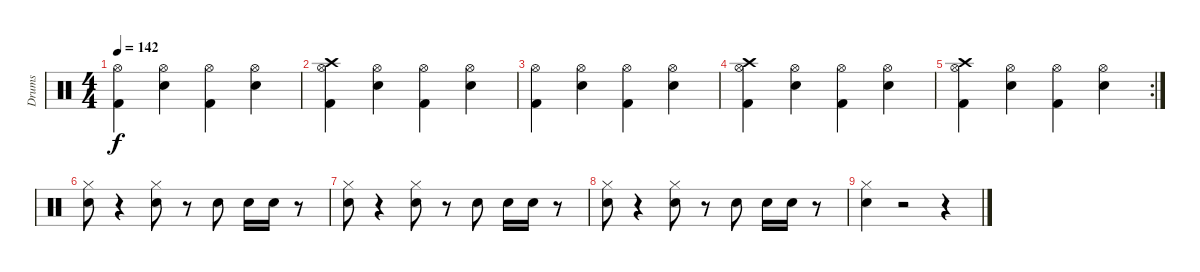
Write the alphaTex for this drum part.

\track ("Drums" "Drums") {instrument percussion}
\staff {score}
\articulation defaults
\ts (4 4)
\tempo 142
\clef neutral
\ks c
("Kick (hit) 2" "Hi-Hat (open)").4{dy f} ("Snare (hit) 2" "Hi-Hat (open)").4 ("Kick (hit) 2" "Hi-Hat (open)").4 ("Snare (hit) 2" "Hi-Hat (open)").4 |
("Kick (hit) 2" "Hi-Hat (open)" "Crash high (hit)").4 ("Snare (hit) 2" "Hi-Hat (open)").4 ("Kick (hit) 2" "Hi-Hat (open)").4 ("Snare (hit) 2" "Hi-Hat (open)").4 |
("Kick (hit) 2" "Hi-Hat (open)").4 ("Snare (hit) 2" "Hi-Hat (open)").4 ("Kick (hit) 2" "Hi-Hat (open)").4 ("Snare (hit) 2" "Hi-Hat (open)").4 |
("Kick (hit) 2" "Hi-Hat (open)" "Crash high (hit)").4 ("Snare (hit) 2" "Hi-Hat (open)").4 ("Kick (hit) 2" "Hi-Hat (open)").4 ("Snare (hit) 2" "Hi-Hat (open)").4 |
\rc 2
("Kick (hit) 2" "Hi-Hat (open)" "Crash high (hit)").4 ("Snare (hit) 2" "Hi-Hat (open)").4 ("Kick (hit) 2" "Hi-Hat (open)").4 ("Snare (hit) 2" "Hi-Hat (open)").4 |
("Snare (hit) 2" "Hi-Hat (closed)").8 r.4 ("Snare (hit) 2" "Hi-Hat (closed)").8 r.8 "Snare (hit) 2".8 "Snare (hit) 2".16 "Snare (hit) 2".16 r.8 |
("Snare (hit) 2" "Hi-Hat (closed)").8 r.4 ("Snare (hit) 2" "Hi-Hat (closed)").8 r.8 "Snare (hit) 2".8 "Snare (hit) 2".16 "Snare (hit) 2".16 r.8 |
("Snare (hit) 2" "Hi-Hat (closed)").8 r.4 ("Snare (hit) 2" "Hi-Hat (closed)").8 r.8 "Snare (hit) 2".8 "Snare (hit) 2".16 "Snare (hit) 2".16 r.8 |
("Snare (hit) 2" "Hi-Hat (closed)").4 r.2 r.4
